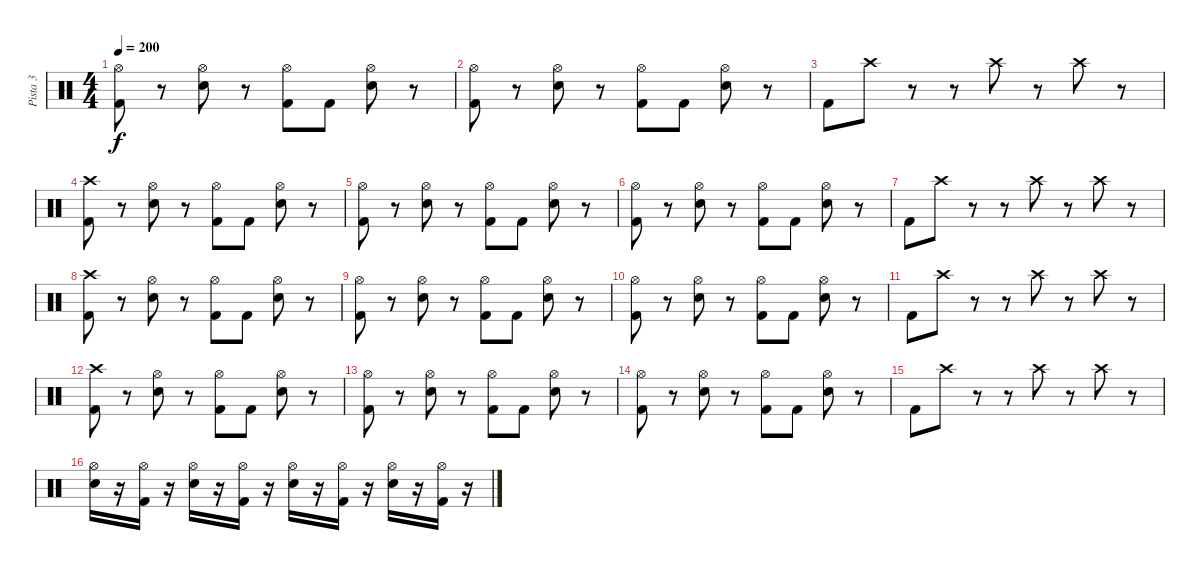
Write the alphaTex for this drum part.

\track ("Pista 3" "Pista 3") {instrument percussion}
\staff {score}
\articulation defaults
\ts (4 4)
\tempo 200
\clef neutral
\ks c
("Hi-Hat (open)" "Kick (hit) 2").8{dy f} r.8 ("Hi-Hat (open)" "Electric Snare (hit)").8 r.8 ("Hi-Hat (open)" "Kick (hit) 2").8 "Kick (hit) 2".8 ("Hi-Hat (open)" "Electric Snare (hit)").8 r.8 |
("Hi-Hat (open)" "Kick (hit) 2").8 r.8 ("Hi-Hat (open)" "Electric Snare (hit)").8 r.8 ("Hi-Hat (open)" "Kick (hit) 2").8 "Kick (hit) 2".8 ("Hi-Hat (open)" "Electric Snare (hit)").8 r.8 |
"Kick (hit) 2".8 "Crash high (hit)".8 r.8 r.8 "Crash high (hit)".8 r.8 "Crash high (hit)".8 r.8 |
("Crash high (hit)" "Kick (hit) 2").8 r.8 ("Hi-Hat (open)" "Electric Snare (hit)").8 r.8 ("Hi-Hat (open)" "Kick (hit) 2").8 "Kick (hit) 2".8 ("Hi-Hat (open)" "Electric Snare (hit)").8 r.8 |
("Hi-Hat (open)" "Kick (hit) 2").8 r.8 ("Hi-Hat (open)" "Electric Snare (hit)").8 r.8 ("Hi-Hat (open)" "Kick (hit) 2").8 "Kick (hit) 2".8 ("Hi-Hat (open)" "Electric Snare (hit)").8 r.8 |
("Hi-Hat (open)" "Kick (hit) 2").8 r.8 ("Hi-Hat (open)" "Electric Snare (hit)").8 r.8 ("Hi-Hat (open)" "Kick (hit) 2").8 "Kick (hit) 2".8 ("Hi-Hat (open)" "Electric Snare (hit)").8 r.8 |
"Kick (hit) 2".8 "Crash high (hit)".8 r.8 r.8 "Crash high (hit)".8 r.8 "Crash high (hit)".8 r.8 |
("Crash high (hit)" "Kick (hit) 2").8 r.8 ("Hi-Hat (open)" "Electric Snare (hit)").8 r.8 ("Hi-Hat (open)" "Kick (hit) 2").8 "Kick (hit) 2".8 ("Hi-Hat (open)" "Electric Snare (hit)").8 r.8 |
("Hi-Hat (open)" "Kick (hit) 2").8 r.8 ("Hi-Hat (open)" "Electric Snare (hit)").8 r.8 ("Hi-Hat (open)" "Kick (hit) 2").8 "Kick (hit) 2".8 ("Hi-Hat (open)" "Electric Snare (hit)").8 r.8 |
("Hi-Hat (open)" "Kick (hit) 2").8 r.8 ("Hi-Hat (open)" "Electric Snare (hit)").8 r.8 ("Hi-Hat (open)" "Kick (hit) 2").8 "Kick (hit) 2".8 ("Hi-Hat (open)" "Electric Snare (hit)").8 r.8 |
"Kick (hit) 2".8 "Crash high (hit)".8 r.8 r.8 "Crash high (hit)".8 r.8 "Crash high (hit)".8 r.8 |
("Crash high (hit)" "Kick (hit) 2").8 r.8 ("Hi-Hat (open)" "Electric Snare (hit)").8 r.8 ("Hi-Hat (open)" "Kick (hit) 2").8 "Kick (hit) 2".8 ("Hi-Hat (open)" "Electric Snare (hit)").8 r.8 |
("Hi-Hat (open)" "Kick (hit) 2").8 r.8 ("Hi-Hat (open)" "Electric Snare (hit)").8 r.8 ("Hi-Hat (open)" "Kick (hit) 2").8 "Kick (hit) 2".8 ("Hi-Hat (open)" "Electric Snare (hit)").8 r.8 |
("Hi-Hat (open)" "Kick (hit) 2").8 r.8 ("Hi-Hat (open)" "Electric Snare (hit)").8 r.8 ("Hi-Hat (open)" "Kick (hit) 2").8 "Kick (hit) 2".8 ("Hi-Hat (open)" "Electric Snare (hit)").8 r.8 |
"Kick (hit) 2".8 "Crash high (hit)".8 r.8 r.8 "Crash high (hit)".8 r.8 "Crash high (hit)".8 r.8 |
("Hi-Hat (open)" "Electric Snare (hit)").16 r.16 ("Hi-Hat (open)" "Kick (hit) 2").16 r.16 ("Hi-Hat (open)" "Electric Snare (hit)").16 r.16 ("Hi-Hat (open)" "Kick (hit) 2").16 r.16 ("Hi-Hat (open)" "Electric Snare (hit)").16 r.16 ("Hi-Hat (open)" "Kick (hit) 2").16 r.16 ("Hi-Hat (open)" "Electric Snare (hit)").16 r.16 ("Hi-Hat (open)" "Kick (hit) 2").16 r.16
